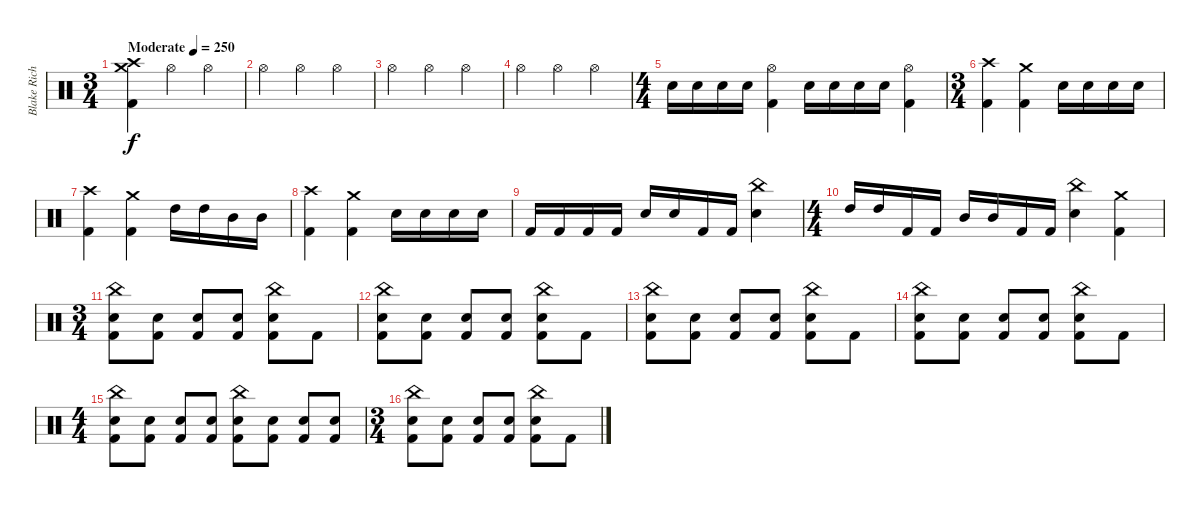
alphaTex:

\track ("Blake Richardson - Drums" "Blake Rich") {instrument percussion}
\staff {score}
\articulation defaults
\ts (3 4)
\tempo (250 "Moderate")
\clef neutral
\ks c
("Crash high (hit)" "Crash medium (hit)" "Kick (hit) 2").4{dy f} "Hi-Hat (open)".4 "Hi-Hat (open)".4 |
"Hi-Hat (open)".4 "Hi-Hat (open)".4 "Hi-Hat (open)".4 |
"Hi-Hat (open)".4 "Hi-Hat (open)".4 "Hi-Hat (open)".4 |
"Hi-Hat (open)".4 "Hi-Hat (open)".4 "Hi-Hat (open)".4 |
\ts (4 4)
"Electric Snare (hit)".16 "Electric Snare (hit)".16 "Electric Snare (hit)".16 "Electric Snare (hit)".16 ("Hi-Hat (open)" "Kick (hit) 2").4 "Electric Snare (hit)".16 "Electric Snare (hit)".16 "Electric Snare (hit)".16 "Electric Snare (hit)".16 ("Hi-Hat (open)" "Kick (hit) 2").4 |
\ts (3 4)
("Crash high (hit)" "Kick (hit) 2").4 ("Crash medium (hit)" "Kick (hit) 2").4 "Electric Snare (hit)".16 "Electric Snare (hit)".16 "Electric Snare (hit)".16 "Electric Snare (hit)".16 |
("Crash high (hit)" "Kick (hit) 2").4 ("Crash medium (hit)" "Kick (hit) 2").4 "High Tom (hit)".16 "High Tom (hit)".16 "Mid Tom (hit)".16 "Mid Tom (hit)".16 |
("Crash high (hit)" "Kick (hit) 2").4 ("Crash medium (hit)" "Kick (hit) 2").4 "Electric Snare (hit)".16 "Electric Snare (hit)".16 "Electric Snare (hit)".16 "Electric Snare (hit)".16 |
"Kick (hit) 2".16 "Kick (hit) 2".16 "Kick (hit) 2".16 "Kick (hit) 2".16 "Electric Snare (hit)".16 "Electric Snare (hit)".16 "Kick (hit) 2".16 "Kick (hit) 2".16 ("China (hit)" "Electric Snare (hit)").4 |
\ts (4 4)
"High Tom (hit)".16 "High Tom (hit)".16 "Kick (hit) 2".16 "Kick (hit) 2".16 "Mid Tom (hit)".16 "Mid Tom (hit)".16 "Kick (hit) 2".16 "Kick (hit) 2".16 ("China (hit)" "Electric Snare (hit)").4 ("Crash medium (hit)" "Kick (hit) 2").4 |
\ts (3 4)
("China (hit)" "Electric Snare (hit)" "Kick (hit) 2").8 ("Electric Snare (hit)" "Kick (hit) 2").8 ("Electric Snare (hit)" "Kick (hit) 2").8 ("Electric Snare (hit)" "Kick (hit) 2").8 ("China (hit)" "Electric Snare (hit)" "Kick (hit) 2").8 "Kick (hit) 2".8 |
("China (hit)" "Electric Snare (hit)" "Kick (hit) 2").8 ("Electric Snare (hit)" "Kick (hit) 2").8 ("Electric Snare (hit)" "Kick (hit) 2").8 ("Electric Snare (hit)" "Kick (hit) 2").8 ("China (hit)" "Electric Snare (hit)" "Kick (hit) 2").8 "Kick (hit) 2".8 |
("China (hit)" "Electric Snare (hit)" "Kick (hit) 2").8 ("Electric Snare (hit)" "Kick (hit) 2").8 ("Electric Snare (hit)" "Kick (hit) 2").8 ("Electric Snare (hit)" "Kick (hit) 2").8 ("China (hit)" "Electric Snare (hit)" "Kick (hit) 2").8 "Kick (hit) 2".8 |
("China (hit)" "Electric Snare (hit)" "Kick (hit) 2").8 ("Electric Snare (hit)" "Kick (hit) 2").8 ("Electric Snare (hit)" "Kick (hit) 2").8 ("Electric Snare (hit)" "Kick (hit) 2").8 ("China (hit)" "Electric Snare (hit)" "Kick (hit) 2").8 "Kick (hit) 2".8 |
\ts (4 4)
("China (hit)" "Electric Snare (hit)" "Kick (hit) 2").8 ("Electric Snare (hit)" "Kick (hit) 2").8 ("Electric Snare (hit)" "Kick (hit) 2").8 ("Electric Snare (hit)" "Kick (hit) 2").8 ("China (hit)" "Electric Snare (hit)" "Kick (hit) 2").8 ("Electric Snare (hit)" "Kick (hit) 2").8 ("Electric Snare (hit)" "Kick (hit) 2").8 ("Electric Snare (hit)" "Kick (hit) 2").8 |
\ts (3 4)
("China (hit)" "Electric Snare (hit)" "Kick (hit) 2").8 ("Electric Snare (hit)" "Kick (hit) 2").8 ("Electric Snare (hit)" "Kick (hit) 2").8 ("Electric Snare (hit)" "Kick (hit) 2").8 ("China (hit)" "Electric Snare (hit)" "Kick (hit) 2").8 "Kick (hit) 2".8
